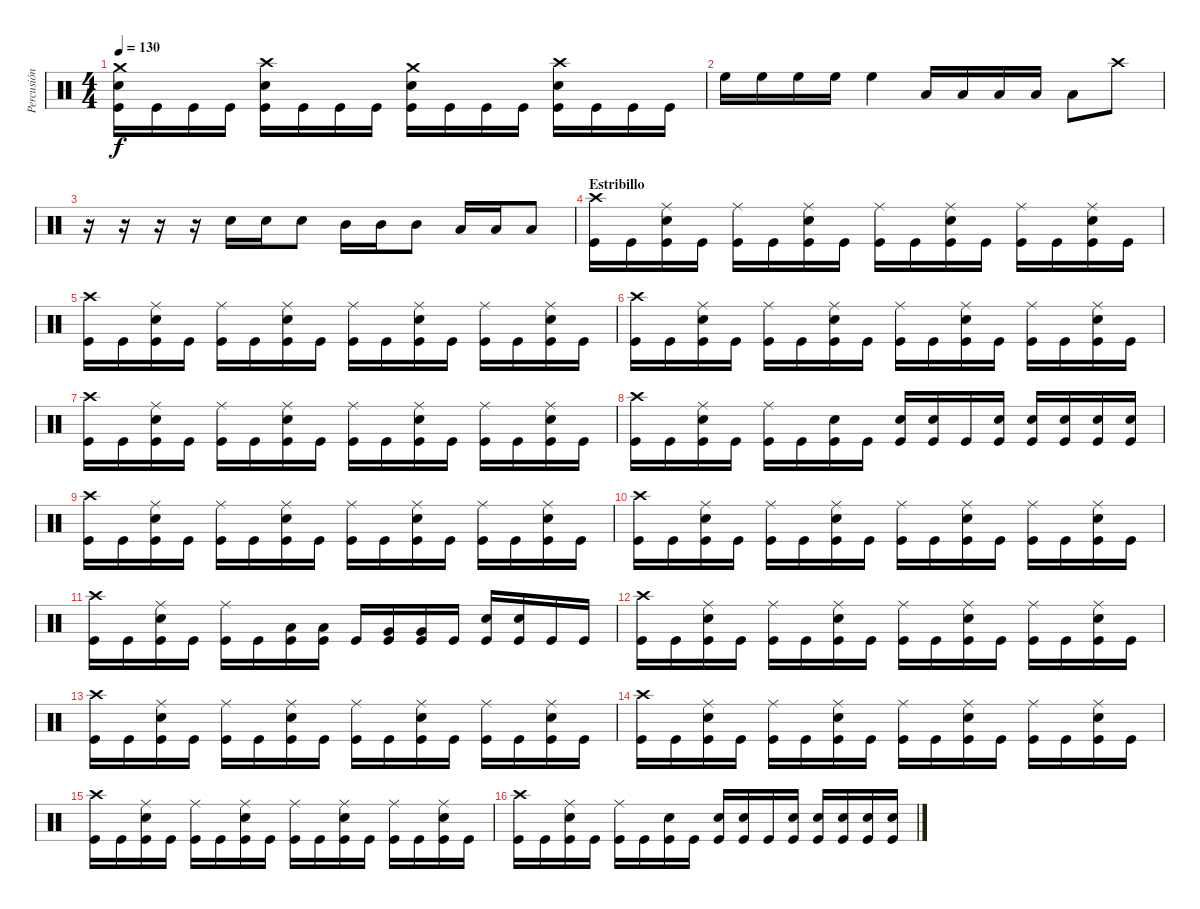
\track ("Percusión" "Percusión") {instrument percussion}
\staff {score}
\articulation defaults
\ts (4 4)
\tempo 130
\clef neutral
\ks c
("Crash medium (hit)" "Electric Snare (hit)" "Kick (hit)").16{dy f} "Kick (hit)".16 "Kick (hit)".16 "Kick (hit)".16 ("Crash high (hit)" "Electric Snare (hit)" "Kick (hit)").16 "Kick (hit)".16 "Kick (hit)".16 "Kick (hit)".16 ("Crash medium (hit)" "Electric Snare (hit)" "Kick (hit)").16 "Kick (hit)".16 "Kick (hit)".16 "Kick (hit)".16 ("Crash high (hit)" "Electric Snare (hit)" "Kick (hit)").16 "Kick (hit)".16 "Kick (hit)".16 "Kick (hit)".16 |
"High Floor Tom (hit)".16 "High Floor Tom (hit)".16 "High Floor Tom (hit)".16 "High Floor Tom (hit)".16 "High Floor Tom (hit)".4 "Low Tom (hit)".16 "Low Tom (hit)".16 "Low Tom (hit)".16 "Low Tom (hit)".16 "Low Tom (hit)".8 "Crash high (hit)".8 |
r.16 r.16 r.16 r.16 "Electric Snare (hit)".16 "Electric Snare (hit)".16 "Electric Snare (hit)".8 "Mid Tom (hit)".16 "Mid Tom (hit)".16 "Mid Tom (hit)".8 "Low Tom (hit)".16 "Low Tom (hit)".16 "Low Tom (hit)".8 |
\section ("" "Estribillo")
("Crash high (hit)" "Kick (hit)").16 "Kick (hit)".16 ("Ride (middle)" "Electric Snare (hit)" "Kick (hit)").16 "Kick (hit)".16 ("Ride (middle)" "Kick (hit)").16 "Kick (hit)".16 ("Ride (middle)" "Electric Snare (hit)" "Kick (hit)").16 "Kick (hit)".16 ("Ride (middle)" "Kick (hit)").16 "Kick (hit)".16 ("Ride (middle)" "Electric Snare (hit)" "Kick (hit)").16 "Kick (hit)".16 ("Ride (middle)" "Kick (hit)").16 "Kick (hit)".16 ("Ride (middle)" "Electric Snare (hit)" "Kick (hit)").16 "Kick (hit)".16 |
("Crash high (hit)" "Kick (hit)").16 "Kick (hit)".16 ("Ride (middle)" "Electric Snare (hit)" "Kick (hit)").16 "Kick (hit)".16 ("Ride (middle)" "Kick (hit)").16 "Kick (hit)".16 ("Ride (middle)" "Electric Snare (hit)" "Kick (hit)").16 "Kick (hit)".16 ("Ride (middle)" "Kick (hit)").16 "Kick (hit)".16 ("Ride (middle)" "Electric Snare (hit)" "Kick (hit)").16 "Kick (hit)".16 ("Ride (middle)" "Kick (hit)").16 "Kick (hit)".16 ("Ride (middle)" "Electric Snare (hit)" "Kick (hit)").16 "Kick (hit)".16 |
("Crash high (hit)" "Kick (hit)").16 "Kick (hit)".16 ("Ride (middle)" "Electric Snare (hit)" "Kick (hit)").16 "Kick (hit)".16 ("Ride (middle)" "Kick (hit)").16 "Kick (hit)".16 ("Ride (middle)" "Electric Snare (hit)" "Kick (hit)").16 "Kick (hit)".16 ("Ride (middle)" "Kick (hit)").16 "Kick (hit)".16 ("Ride (middle)" "Electric Snare (hit)" "Kick (hit)").16 "Kick (hit)".16 ("Ride (middle)" "Kick (hit)").16 "Kick (hit)".16 ("Ride (middle)" "Electric Snare (hit)" "Kick (hit)").16 "Kick (hit)".16 |
("Crash high (hit)" "Kick (hit)").16 "Kick (hit)".16 ("Ride (middle)" "Electric Snare (hit)" "Kick (hit)").16 "Kick (hit)".16 ("Ride (middle)" "Kick (hit)").16 "Kick (hit)".16 ("Ride (middle)" "Electric Snare (hit)" "Kick (hit)").16 "Kick (hit)".16 ("Ride (middle)" "Kick (hit)").16 "Kick (hit)".16 ("Ride (middle)" "Electric Snare (hit)" "Kick (hit)").16 "Kick (hit)".16 ("Ride (middle)" "Kick (hit)").16 "Kick (hit)".16 ("Ride (middle)" "Electric Snare (hit)" "Kick (hit)").16 "Kick (hit)".16 |
("Crash high (hit)" "Kick (hit)").16 "Kick (hit)".16 ("Ride (middle)" "Electric Snare (hit)" "Kick (hit)").16 "Kick (hit)".16 ("Ride (middle)" "Kick (hit)").16 "Kick (hit)".16 ("Electric Snare (hit)" "Kick (hit)").16 "Kick (hit)".16 ("Electric Snare (hit)" "Kick (hit)").16 ("Electric Snare (hit)" "Kick (hit)").16 "Kick (hit)".16 ("Electric Snare (hit)" "Kick (hit)").16 ("Electric Snare (hit)" "Kick (hit)").16 ("Electric Snare (hit)" "Kick (hit)").16 ("Electric Snare (hit)" "Kick (hit)").16 ("Electric Snare (hit)" "Kick (hit)").16 |
("Crash high (hit)" "Kick (hit)").16 "Kick (hit)".16 ("Ride (middle)" "Electric Snare (hit)" "Kick (hit)").16 "Kick (hit)".16 ("Ride (middle)" "Kick (hit)").16 "Kick (hit)".16 ("Ride (middle)" "Electric Snare (hit)" "Kick (hit)").16 "Kick (hit)".16 ("Ride (middle)" "Kick (hit)").16 "Kick (hit)".16 ("Ride (middle)" "Electric Snare (hit)" "Kick (hit)").16 "Kick (hit)".16 ("Ride (middle)" "Kick (hit)").16 "Kick (hit)".16 ("Ride (middle)" "Electric Snare (hit)" "Kick (hit)").16 "Kick (hit)".16 |
("Crash high (hit)" "Kick (hit)").16 "Kick (hit)".16 ("Ride (middle)" "Electric Snare (hit)" "Kick (hit)").16 "Kick (hit)".16 ("Ride (middle)" "Kick (hit)").16 "Kick (hit)".16 ("Ride (middle)" "Electric Snare (hit)" "Kick (hit)").16 "Kick (hit)".16 ("Ride (middle)" "Kick (hit)").16 "Kick (hit)".16 ("Ride (middle)" "Electric Snare (hit)" "Kick (hit)").16 "Kick (hit)".16 ("Ride (middle)" "Kick (hit)").16 "Kick (hit)".16 ("Ride (middle)" "Electric Snare (hit)" "Kick (hit)").16 "Kick (hit)".16 |
("Crash high (hit)" "Kick (hit)").16 "Kick (hit)".16 ("Ride (middle)" "Electric Snare (hit)" "Kick (hit)").16 "Kick (hit)".16 ("Ride (middle)" "Kick (hit)").16 "Kick (hit)".16 ("Low Tom (hit)" "Kick (hit)").16 ("Low Tom (hit)" "Kick (hit)").16 "Kick (hit)".16 ("Very Low Tom (hit)" "Kick (hit)").16 ("Very Low Tom (hit)" "Kick (hit)").16 "Kick (hit)".16 ("Electric Snare (hit)" "Kick (hit)").16 ("Electric Snare (hit)" "Kick (hit)").16 "Kick (hit)".16 "Kick (hit)".16 |
("Crash high (hit)" "Kick (hit)").16 "Kick (hit)".16 ("Ride (middle)" "Electric Snare (hit)" "Kick (hit)").16 "Kick (hit)".16 ("Ride (middle)" "Kick (hit)").16 "Kick (hit)".16 ("Ride (middle)" "Electric Snare (hit)" "Kick (hit)").16 "Kick (hit)".16 ("Ride (middle)" "Kick (hit)").16 "Kick (hit)".16 ("Ride (middle)" "Electric Snare (hit)" "Kick (hit)").16 "Kick (hit)".16 ("Ride (middle)" "Kick (hit)").16 "Kick (hit)".16 ("Ride (middle)" "Electric Snare (hit)" "Kick (hit)").16 "Kick (hit)".16 |
("Crash high (hit)" "Kick (hit)").16 "Kick (hit)".16 ("Ride (middle)" "Electric Snare (hit)" "Kick (hit)").16 "Kick (hit)".16 ("Ride (middle)" "Kick (hit)").16 "Kick (hit)".16 ("Ride (middle)" "Electric Snare (hit)" "Kick (hit)").16 "Kick (hit)".16 ("Ride (middle)" "Kick (hit)").16 "Kick (hit)".16 ("Ride (middle)" "Electric Snare (hit)" "Kick (hit)").16 "Kick (hit)".16 ("Ride (middle)" "Kick (hit)").16 "Kick (hit)".16 ("Ride (middle)" "Electric Snare (hit)" "Kick (hit)").16 "Kick (hit)".16 |
("Crash high (hit)" "Kick (hit)").16 "Kick (hit)".16 ("Ride (middle)" "Electric Snare (hit)" "Kick (hit)").16 "Kick (hit)".16 ("Ride (middle)" "Kick (hit)").16 "Kick (hit)".16 ("Ride (middle)" "Electric Snare (hit)" "Kick (hit)").16 "Kick (hit)".16 ("Ride (middle)" "Kick (hit)").16 "Kick (hit)".16 ("Ride (middle)" "Electric Snare (hit)" "Kick (hit)").16 "Kick (hit)".16 ("Ride (middle)" "Kick (hit)").16 "Kick (hit)".16 ("Ride (middle)" "Electric Snare (hit)" "Kick (hit)").16 "Kick (hit)".16 |
("Crash high (hit)" "Kick (hit)").16 "Kick (hit)".16 ("Ride (middle)" "Electric Snare (hit)" "Kick (hit)").16 "Kick (hit)".16 ("Ride (middle)" "Kick (hit)").16 "Kick (hit)".16 ("Ride (middle)" "Electric Snare (hit)" "Kick (hit)").16 "Kick (hit)".16 ("Ride (middle)" "Kick (hit)").16 "Kick (hit)".16 ("Ride (middle)" "Electric Snare (hit)" "Kick (hit)").16 "Kick (hit)".16 ("Ride (middle)" "Kick (hit)").16 "Kick (hit)".16 ("Ride (middle)" "Electric Snare (hit)" "Kick (hit)").16 "Kick (hit)".16 |
("Crash high (hit)" "Kick (hit)").16 "Kick (hit)".16 ("Ride (middle)" "Electric Snare (hit)" "Kick (hit)").16 "Kick (hit)".16 ("Ride (middle)" "Kick (hit)").16 "Kick (hit)".16 ("Electric Snare (hit)" "Kick (hit)").16 "Kick (hit)".16 ("Electric Snare (hit)" "Kick (hit)").16 ("Electric Snare (hit)" "Kick (hit)").16 "Kick (hit)".16 ("Electric Snare (hit)" "Kick (hit)").16 ("Electric Snare (hit)" "Kick (hit)").16 ("Electric Snare (hit)" "Kick (hit)").16 ("Electric Snare (hit)" "Kick (hit)").16 ("Electric Snare (hit)" "Kick (hit)").16
